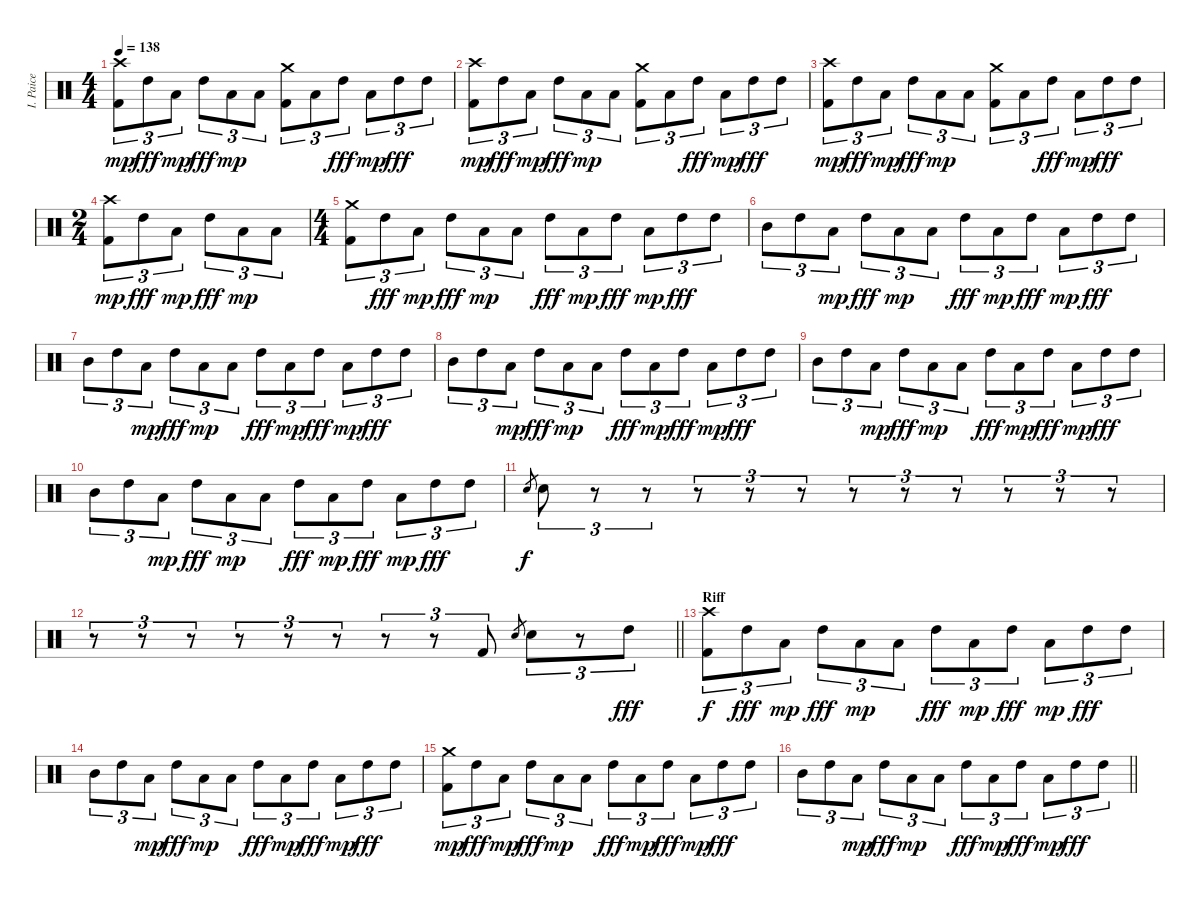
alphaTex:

\track ("I. Paice" "I. Paice") {instrument percussion}
\staff {score}
\articulation defaults
\ts (4 4)
\tempo 138
\clef neutral
\ks c
("Crash high (hit)" "Kick (hit) 2").8{tu (3 2) dy mp} "High Tom (hit)".8{tu (3 2) dy fff} "Low Tom (hit)".8{tu (3 2) dy mp} "High Tom (hit)".8{tu (3 2) dy fff} "Low Tom (hit)".8{tu (3 2) dy mp} "Low Tom (hit)".8{tu (3 2)} ("Crash medium (hit)" "Kick (hit) 2").8{tu (3 2)} "Low Tom (hit)".8{tu (3 2)} "High Tom (hit)".8{tu (3 2) dy fff} "Low Tom (hit)".8{tu (3 2) dy mp} "High Tom (hit)".8{tu (3 2) dy fff} "High Tom (hit)".8{tu (3 2)} |
("Crash high (hit)" "Kick (hit) 2").8{tu (3 2) dy mp} "High Tom (hit)".8{tu (3 2) dy fff} "Low Tom (hit)".8{tu (3 2) dy mp} "High Tom (hit)".8{tu (3 2) dy fff} "Low Tom (hit)".8{tu (3 2) dy mp} "Low Tom (hit)".8{tu (3 2)} ("Crash medium (hit)" "Kick (hit) 2").8{tu (3 2)} "Low Tom (hit)".8{tu (3 2)} "High Tom (hit)".8{tu (3 2) dy fff} "Low Tom (hit)".8{tu (3 2) dy mp} "High Tom (hit)".8{tu (3 2) dy fff} "High Tom (hit)".8{tu (3 2)} |
("Crash high (hit)" "Kick (hit) 2").8{tu (3 2) dy mp} "High Tom (hit)".8{tu (3 2) dy fff} "Low Tom (hit)".8{tu (3 2) dy mp} "High Tom (hit)".8{tu (3 2) dy fff} "Low Tom (hit)".8{tu (3 2) dy mp} "Low Tom (hit)".8{tu (3 2)} ("Crash medium (hit)" "Kick (hit) 2").8{tu (3 2)} "Low Tom (hit)".8{tu (3 2)} "High Tom (hit)".8{tu (3 2) dy fff} "Low Tom (hit)".8{tu (3 2) dy mp} "High Tom (hit)".8{tu (3 2) dy fff} "High Tom (hit)".8{tu (3 2)} |
\ts (2 4)
("Crash high (hit)" "Kick (hit) 2").8{tu (3 2) dy mp} "High Tom (hit)".8{tu (3 2) dy fff} "Low Tom (hit)".8{tu (3 2) dy mp} "High Tom (hit)".8{tu (3 2) dy fff} "Low Tom (hit)".8{tu (3 2) dy mp} "Low Tom (hit)".8{tu (3 2)} |
\ts (4 4)
("Crash medium (hit)" "Kick (hit) 2").8{tu (3 2)} "High Tom (hit)".8{tu (3 2) dy fff} "Low Tom (hit)".8{tu (3 2) dy mp} "High Tom (hit)".8{tu (3 2) dy fff} "Low Tom (hit)".8{tu (3 2) dy mp} "Low Tom (hit)".8{tu (3 2)} "High Tom (hit)".8{tu (3 2) dy fff} "Low Tom (hit)".8{tu (3 2) dy mp} "High Tom (hit)".8{tu (3 2) dy fff} "Low Tom (hit)".8{tu (3 2) dy mp} "High Tom (hit)".8{tu (3 2) dy fff} "High Tom (hit)".8{tu (3 2)} |
"Mid Tom (hit)".8{tu (3 2)} "High Tom (hit)".8{tu (3 2)} "Low Tom (hit)".8{tu (3 2) dy mp} "High Tom (hit)".8{tu (3 2) dy fff} "Low Tom (hit)".8{tu (3 2) dy mp} "Low Tom (hit)".8{tu (3 2)} "High Tom (hit)".8{tu (3 2) dy fff} "Low Tom (hit)".8{tu (3 2) dy mp} "High Tom (hit)".8{tu (3 2) dy fff} "Low Tom (hit)".8{tu (3 2) dy mp} "High Tom (hit)".8{tu (3 2) dy fff} "High Tom (hit)".8{tu (3 2)} |
"Mid Tom (hit)".8{tu (3 2)} "High Tom (hit)".8{tu (3 2)} "Low Tom (hit)".8{tu (3 2) dy mp} "High Tom (hit)".8{tu (3 2) dy fff} "Low Tom (hit)".8{tu (3 2) dy mp} "Low Tom (hit)".8{tu (3 2)} "High Tom (hit)".8{tu (3 2) dy fff} "Low Tom (hit)".8{tu (3 2) dy mp} "High Tom (hit)".8{tu (3 2) dy fff} "Low Tom (hit)".8{tu (3 2) dy mp} "High Tom (hit)".8{tu (3 2) dy fff} "High Tom (hit)".8{tu (3 2)} |
"Mid Tom (hit)".8{tu (3 2)} "High Tom (hit)".8{tu (3 2)} "Low Tom (hit)".8{tu (3 2) dy mp} "High Tom (hit)".8{tu (3 2) dy fff} "Low Tom (hit)".8{tu (3 2) dy mp} "Low Tom (hit)".8{tu (3 2)} "High Tom (hit)".8{tu (3 2) dy fff} "Low Tom (hit)".8{tu (3 2) dy mp} "High Tom (hit)".8{tu (3 2) dy fff} "Low Tom (hit)".8{tu (3 2) dy mp} "High Tom (hit)".8{tu (3 2) dy fff} "High Tom (hit)".8{tu (3 2)} |
"Mid Tom (hit)".8{tu (3 2)} "High Tom (hit)".8{tu (3 2)} "Low Tom (hit)".8{tu (3 2) dy mp} "High Tom (hit)".8{tu (3 2) dy fff} "Low Tom (hit)".8{tu (3 2) dy mp} "Low Tom (hit)".8{tu (3 2)} "High Tom (hit)".8{tu (3 2) dy fff} "Low Tom (hit)".8{tu (3 2) dy mp} "High Tom (hit)".8{tu (3 2) dy fff} "Low Tom (hit)".8{tu (3 2) dy mp} "High Tom (hit)".8{tu (3 2) dy fff} "High Tom (hit)".8{tu (3 2)} |
"Mid Tom (hit)".8{tu (3 2)} "High Tom (hit)".8{tu (3 2)} "Low Tom (hit)".8{tu (3 2) dy mp} "High Tom (hit)".8{tu (3 2) dy fff} "Low Tom (hit)".8{tu (3 2) dy mp} "Low Tom (hit)".8{tu (3 2)} "High Tom (hit)".8{tu (3 2) dy fff} "Low Tom (hit)".8{tu (3 2) dy mp} "High Tom (hit)".8{tu (3 2) dy fff} "Low Tom (hit)".8{tu (3 2) dy mp} "High Tom (hit)".8{tu (3 2) dy fff} "High Tom (hit)".8{tu (3 2)} |
"Snare (hit) 2".8{gr dy f} "Snare (hit) 2".8{tu (3 2)} r.8{tu (3 2)} r.8{tu (3 2)} r.8{tu (3 2)} r.8{tu (3 2)} r.8{tu (3 2)} r.8{tu (3 2)} r.8{tu (3 2)} r.8{tu (3 2)} r.8{tu (3 2)} r.8{tu (3 2)} r.8{tu (3 2)} |
\barLineRight lightlight
r.8{tu (3 2)} r.8{tu (3 2)} r.8{tu (3 2)} r.8{tu (3 2)} r.8{tu (3 2)} r.8{tu (3 2)} r.8{tu (3 2)} r.8{tu (3 2)} "Kick (hit) 2".8{tu (3 2)} "Snare (hit) 2".8{gr} "Snare (hit) 2".8{tu (3 2)} r.8{tu (3 2)} "High Tom (hit)".8{tu (3 2) dy fff} |
\section ("" "Riff")
("Crash high (hit)" "Kick (hit) 2").8{tu (3 2) dy f} "High Tom (hit)".8{tu (3 2) dy fff} "Low Tom (hit)".8{tu (3 2) dy mp} "High Tom (hit)".8{tu (3 2) dy fff} "Low Tom (hit)".8{tu (3 2) dy mp} "Low Tom (hit)".8{tu (3 2)} "High Tom (hit)".8{tu (3 2) dy fff} "Low Tom (hit)".8{tu (3 2) dy mp} "High Tom (hit)".8{tu (3 2) dy fff} "Low Tom (hit)".8{tu (3 2) dy mp} "High Tom (hit)".8{tu (3 2) dy fff} "High Tom (hit)".8{tu (3 2)} |
"Mid Tom (hit)".8{tu (3 2)} "High Tom (hit)".8{tu (3 2)} "Low Tom (hit)".8{tu (3 2) dy mp} "High Tom (hit)".8{tu (3 2) dy fff} "Low Tom (hit)".8{tu (3 2) dy mp} "Low Tom (hit)".8{tu (3 2)} "High Tom (hit)".8{tu (3 2) dy fff} "Low Tom (hit)".8{tu (3 2) dy mp} "High Tom (hit)".8{tu (3 2) dy fff} "Low Tom (hit)".8{tu (3 2) dy mp} "High Tom (hit)".8{tu (3 2) dy fff} "High Tom (hit)".8{tu (3 2)} |
("Crash medium (hit)" "Kick (hit) 2").8{tu (3 2) dy mp} "High Tom (hit)".8{tu (3 2) dy fff} "Low Tom (hit)".8{tu (3 2) dy mp} "High Tom (hit)".8{tu (3 2) dy fff} "Low Tom (hit)".8{tu (3 2) dy mp} "Low Tom (hit)".8{tu (3 2)} "High Tom (hit)".8{tu (3 2) dy fff} "Low Tom (hit)".8{tu (3 2) dy mp} "High Tom (hit)".8{tu (3 2) dy fff} "Low Tom (hit)".8{tu (3 2) dy mp} "High Tom (hit)".8{tu (3 2) dy fff} "High Tom (hit)".8{tu (3 2)} |
\barLineRight lightlight "Mid Tom (hit)".8{tu (3 2)} "High Tom (hit)".8{tu (3 2)} "Low Tom (hit)".8{tu (3 2) dy mp} "High Tom (hit)".8{tu (3 2) dy fff} "Low Tom (hit)".8{tu (3 2) dy mp} "Low Tom (hit)".8{tu (3 2)} "High Tom (hit)".8{tu (3 2) dy fff} "Low Tom (hit)".8{tu (3 2) dy mp} "High Tom (hit)".8{tu (3 2) dy fff} "Low Tom (hit)".8{tu (3 2) dy mp} "High Tom (hit)".8{tu (3 2) dy fff} "High Tom (hit)".8{tu (3 2)}
